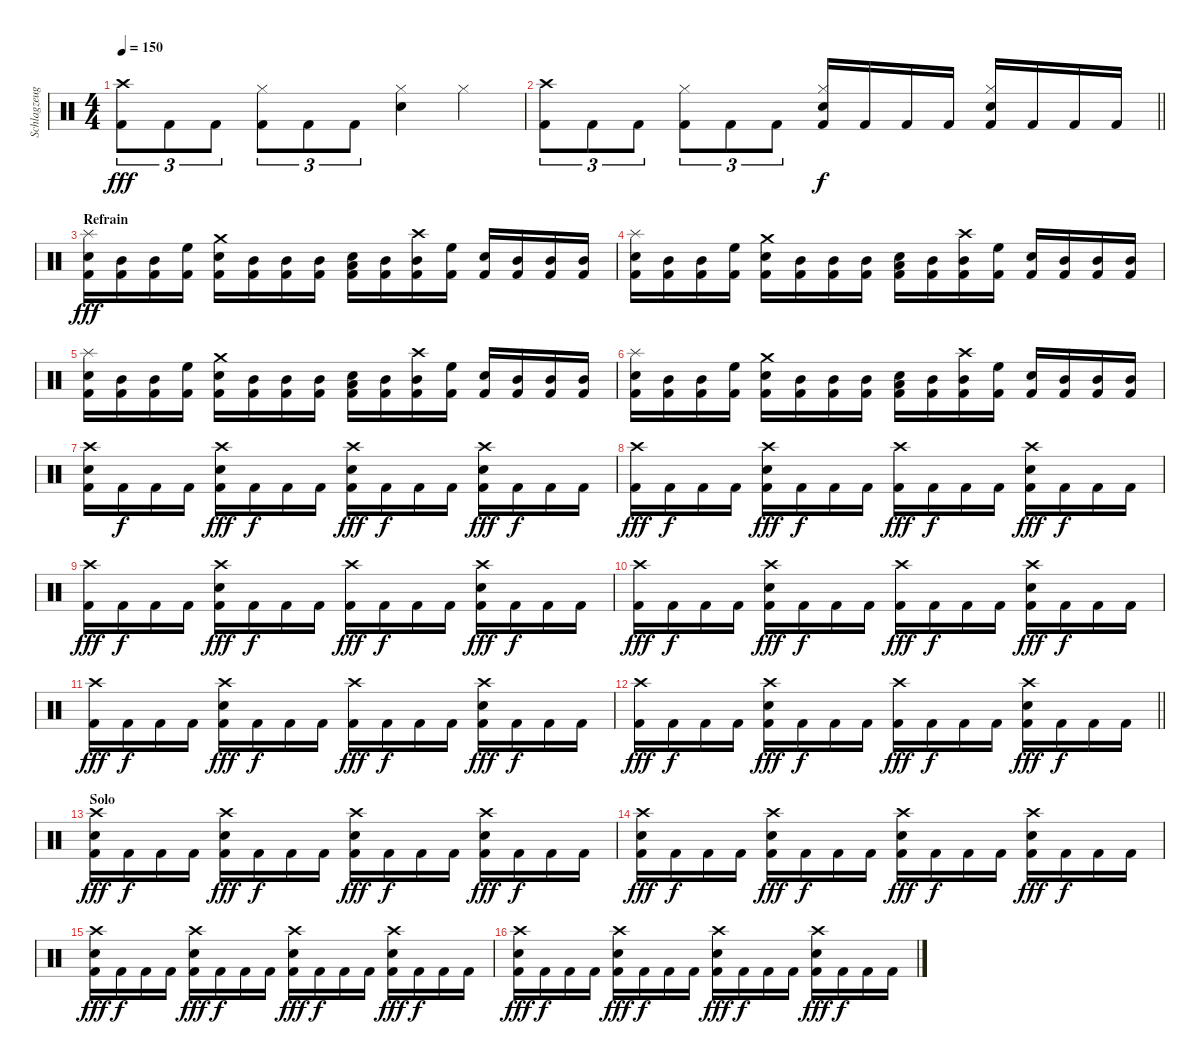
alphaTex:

\track ("Schlagzeug" "Schlagzeug") {instrument percussion}
\staff {score}
\articulation defaults
\ts (4 4)
\tempo 150
\clef neutral
\ks c
("Crash high (hit)" "Kick (hit) 2").8{tu (3 2) dy fff} "Kick (hit) 2".8{tu (3 2)} "Kick (hit) 2".8{tu (3 2)} ("Hi-Hat (closed)" "Kick (hit) 2").8{tu (3 2)} "Kick (hit) 2".8{tu (3 2)} "Kick (hit) 2".8{tu (3 2)} ("Hi-Hat (closed)" "Snare (hit) 2").4 "Hi-Hat (closed)".4 |
\barLineRight lightlight
("Crash high (hit)" "Kick (hit) 2").8{tu (3 2)} "Kick (hit) 2".8{tu (3 2)} "Kick (hit) 2".8{tu (3 2)} ("Hi-Hat (closed)" "Kick (hit) 2").8{tu (3 2)} "Kick (hit) 2".8{tu (3 2)} "Kick (hit) 2".8{tu (3 2)} ("Hi-Hat (closed)" "Kick (hit) 2" "Snare (hit) 2").16{dy f} "Kick (hit) 2".16 "Kick (hit) 2".16 "Kick (hit) 2".16 ("Hi-Hat (closed)" "Kick (hit) 2" "Snare (hit) 2").16 "Kick (hit) 2".16 "Kick (hit) 2".16 "Kick (hit) 2".16 |
\section ("" "Refrain")
("Snare (hit) 2" "Splash (hit)" "Kick (hit) 2").16{dy fff} ("Mid Tom (hit)" "Kick (hit) 2").16 ("Mid Tom (hit)" "Kick (hit) 2").16 ("High Floor Tom (hit)" "Kick (hit) 2").16 ("Snare (hit) 2" "Crash medium (hit)" "Kick (hit) 2").16 ("Mid Tom (hit)" "Kick (hit) 2").16 ("Mid Tom (hit)" "Kick (hit) 2").16 ("Mid Tom (hit)" "Kick (hit) 2").16 ("Snare (hit) 2" "Low Tom (hit)" "Kick (hit) 2").16 ("Mid Tom (hit)" "Kick (hit) 2").16 ("Mid Tom (hit)" "Crash high (hit)" "Kick (hit) 2").16 ("High Floor Tom (hit)" "Kick (hit) 2").16 ("Snare (hit) 2" "Kick (hit) 2").16 ("Mid Tom (hit)" "Kick (hit) 2").16 ("Mid Tom (hit)" "Kick (hit) 2").16 ("Mid Tom (hit)" "Kick (hit) 2").16 |
("Snare (hit) 2" "Splash (hit)" "Kick (hit) 2").16 ("Mid Tom (hit)" "Kick (hit) 2").16 ("Mid Tom (hit)" "Kick (hit) 2").16 ("High Floor Tom (hit)" "Kick (hit) 2").16 ("Snare (hit) 2" "Crash medium (hit)" "Kick (hit) 2").16 ("Mid Tom (hit)" "Kick (hit) 2").16 ("Mid Tom (hit)" "Kick (hit) 2").16 ("Mid Tom (hit)" "Kick (hit) 2").16 ("Snare (hit) 2" "Low Tom (hit)" "Kick (hit) 2").16 ("Mid Tom (hit)" "Kick (hit) 2").16 ("Mid Tom (hit)" "Crash high (hit)" "Kick (hit) 2").16 ("High Floor Tom (hit)" "Kick (hit) 2").16 ("Snare (hit) 2" "Kick (hit) 2").16 ("Mid Tom (hit)" "Kick (hit) 2").16 ("Mid Tom (hit)" "Kick (hit) 2").16 ("Mid Tom (hit)" "Kick (hit) 2").16 |
("Snare (hit) 2" "Splash (hit)" "Kick (hit) 2").16 ("Mid Tom (hit)" "Kick (hit) 2").16 ("Mid Tom (hit)" "Kick (hit) 2").16 ("High Floor Tom (hit)" "Kick (hit) 2").16 ("Snare (hit) 2" "Crash medium (hit)" "Kick (hit) 2").16 ("Mid Tom (hit)" "Kick (hit) 2").16 ("Mid Tom (hit)" "Kick (hit) 2").16 ("Mid Tom (hit)" "Kick (hit) 2").16 ("Snare (hit) 2" "Low Tom (hit)" "Kick (hit) 2").16 ("Mid Tom (hit)" "Kick (hit) 2").16 ("Mid Tom (hit)" "Crash high (hit)" "Kick (hit) 2").16 ("High Floor Tom (hit)" "Kick (hit) 2").16 ("Snare (hit) 2" "Kick (hit) 2").16 ("Mid Tom (hit)" "Kick (hit) 2").16 ("Mid Tom (hit)" "Kick (hit) 2").16 ("Mid Tom (hit)" "Kick (hit) 2").16 |
("Snare (hit) 2" "Splash (hit)" "Kick (hit) 2").16 ("Mid Tom (hit)" "Kick (hit) 2").16 ("Mid Tom (hit)" "Kick (hit) 2").16 ("High Floor Tom (hit)" "Kick (hit) 2").16 ("Snare (hit) 2" "Crash medium (hit)" "Kick (hit) 2").16 ("Mid Tom (hit)" "Kick (hit) 2").16 ("Mid Tom (hit)" "Kick (hit) 2").16 ("Mid Tom (hit)" "Kick (hit) 2").16 ("Snare (hit) 2" "Low Tom (hit)" "Kick (hit) 2").16 ("Mid Tom (hit)" "Kick (hit) 2").16 ("Mid Tom (hit)" "Crash high (hit)" "Kick (hit) 2").16 ("High Floor Tom (hit)" "Kick (hit) 2").16 ("Snare (hit) 2" "Kick (hit) 2").16 ("Mid Tom (hit)" "Kick (hit) 2").16 ("Mid Tom (hit)" "Kick (hit) 2").16 ("Mid Tom (hit)" "Kick (hit) 2").16 |
("Crash high (hit)" "Snare (hit) 2" "Kick (hit) 2").16 "Kick (hit) 2".16{dy f} "Kick (hit) 2".16 "Kick (hit) 2".16 ("Crash high (hit)" "Snare (hit) 2" "Kick (hit) 2").16{dy fff} "Kick (hit) 2".16{dy f} "Kick (hit) 2".16 "Kick (hit) 2".16 ("Crash high (hit)" "Snare (hit) 2" "Kick (hit) 2").16{dy fff} "Kick (hit) 2".16{dy f} "Kick (hit) 2".16 "Kick (hit) 2".16 ("Crash high (hit)" "Snare (hit) 2" "Kick (hit) 2").16{dy fff} "Kick (hit) 2".16{dy f} "Kick (hit) 2".16 "Kick (hit) 2".16 |
("Crash high (hit)" "Kick (hit) 2").16{dy fff} "Kick (hit) 2".16{dy f} "Kick (hit) 2".16 "Kick (hit) 2".16 ("Crash high (hit)" "Snare (hit) 2" "Kick (hit) 2").16{dy fff} "Kick (hit) 2".16{dy f} "Kick (hit) 2".16 "Kick (hit) 2".16 ("Crash high (hit)" "Kick (hit) 2").16{dy fff} "Kick (hit) 2".16{dy f} "Kick (hit) 2".16 "Kick (hit) 2".16 ("Crash high (hit)" "Snare (hit) 2" "Kick (hit) 2").16{dy fff} "Kick (hit) 2".16{dy f} "Kick (hit) 2".16 "Kick (hit) 2".16 |
("Crash high (hit)" "Kick (hit) 2").16{dy fff} "Kick (hit) 2".16{dy f} "Kick (hit) 2".16 "Kick (hit) 2".16 ("Crash high (hit)" "Snare (hit) 2" "Kick (hit) 2").16{dy fff} "Kick (hit) 2".16{dy f} "Kick (hit) 2".16 "Kick (hit) 2".16 ("Crash high (hit)" "Kick (hit) 2").16{dy fff} "Kick (hit) 2".16{dy f} "Kick (hit) 2".16 "Kick (hit) 2".16 ("Crash high (hit)" "Snare (hit) 2" "Kick (hit) 2").16{dy fff} "Kick (hit) 2".16{dy f} "Kick (hit) 2".16 "Kick (hit) 2".16 |
("Crash high (hit)" "Kick (hit) 2").16{dy fff} "Kick (hit) 2".16{dy f} "Kick (hit) 2".16 "Kick (hit) 2".16 ("Crash high (hit)" "Snare (hit) 2" "Kick (hit) 2").16{dy fff} "Kick (hit) 2".16{dy f} "Kick (hit) 2".16 "Kick (hit) 2".16 ("Crash high (hit)" "Kick (hit) 2").16{dy fff} "Kick (hit) 2".16{dy f} "Kick (hit) 2".16 "Kick (hit) 2".16 ("Crash high (hit)" "Snare (hit) 2" "Kick (hit) 2").16{dy fff} "Kick (hit) 2".16{dy f} "Kick (hit) 2".16 "Kick (hit) 2".16 |
("Crash high (hit)" "Kick (hit) 2").16{dy fff} "Kick (hit) 2".16{dy f} "Kick (hit) 2".16 "Kick (hit) 2".16 ("Crash high (hit)" "Snare (hit) 2" "Kick (hit) 2").16{dy fff} "Kick (hit) 2".16{dy f} "Kick (hit) 2".16 "Kick (hit) 2".16 ("Crash high (hit)" "Kick (hit) 2").16{dy fff} "Kick (hit) 2".16{dy f} "Kick (hit) 2".16 "Kick (hit) 2".16 ("Crash high (hit)" "Snare (hit) 2" "Kick (hit) 2").16{dy fff} "Kick (hit) 2".16{dy f} "Kick (hit) 2".16 "Kick (hit) 2".16 |
\barLineRight lightlight
("Crash high (hit)" "Kick (hit) 2").16{dy fff} "Kick (hit) 2".16{dy f} "Kick (hit) 2".16 "Kick (hit) 2".16 ("Crash high (hit)" "Snare (hit) 2" "Kick (hit) 2").16{dy fff} "Kick (hit) 2".16{dy f} "Kick (hit) 2".16 "Kick (hit) 2".16 ("Crash high (hit)" "Kick (hit) 2").16{dy fff} "Kick (hit) 2".16{dy f} "Kick (hit) 2".16 "Kick (hit) 2".16 ("Crash high (hit)" "Snare (hit) 2" "Kick (hit) 2").16{dy fff} "Kick (hit) 2".16{dy f} "Kick (hit) 2".16 "Kick (hit) 2".16 |
\section ("" "Solo")
("Crash high (hit)" "Snare (hit) 2" "Kick (hit) 2").16{dy fff} "Kick (hit) 2".16{dy f} "Kick (hit) 2".16 "Kick (hit) 2".16 ("Crash high (hit)" "Snare (hit) 2" "Kick (hit) 2").16{dy fff} "Kick (hit) 2".16{dy f} "Kick (hit) 2".16 "Kick (hit) 2".16 ("Crash high (hit)" "Snare (hit) 2" "Kick (hit) 2").16{dy fff} "Kick (hit) 2".16{dy f} "Kick (hit) 2".16 "Kick (hit) 2".16 ("Crash high (hit)" "Snare (hit) 2" "Kick (hit) 2").16{dy fff} "Kick (hit) 2".16{dy f} "Kick (hit) 2".16 "Kick (hit) 2".16 |
("Crash high (hit)" "Snare (hit) 2" "Kick (hit) 2").16{dy fff} "Kick (hit) 2".16{dy f} "Kick (hit) 2".16 "Kick (hit) 2".16 ("Crash high (hit)" "Snare (hit) 2" "Kick (hit) 2").16{dy fff} "Kick (hit) 2".16{dy f} "Kick (hit) 2".16 "Kick (hit) 2".16 ("Crash high (hit)" "Snare (hit) 2" "Kick (hit) 2").16{dy fff} "Kick (hit) 2".16{dy f} "Kick (hit) 2".16 "Kick (hit) 2".16 ("Crash high (hit)" "Snare (hit) 2" "Kick (hit) 2").16{dy fff} "Kick (hit) 2".16{dy f} "Kick (hit) 2".16 "Kick (hit) 2".16 |
("Crash high (hit)" "Snare (hit) 2" "Kick (hit) 2").16{dy fff} "Kick (hit) 2".16{dy f} "Kick (hit) 2".16 "Kick (hit) 2".16 ("Crash high (hit)" "Snare (hit) 2" "Kick (hit) 2").16{dy fff} "Kick (hit) 2".16{dy f} "Kick (hit) 2".16 "Kick (hit) 2".16 ("Crash high (hit)" "Snare (hit) 2" "Kick (hit) 2").16{dy fff} "Kick (hit) 2".16{dy f} "Kick (hit) 2".16 "Kick (hit) 2".16 ("Crash high (hit)" "Snare (hit) 2" "Kick (hit) 2").16{dy fff} "Kick (hit) 2".16{dy f} "Kick (hit) 2".16 "Kick (hit) 2".16 |
("Crash high (hit)" "Snare (hit) 2" "Kick (hit) 2").16{dy fff} "Kick (hit) 2".16{dy f} "Kick (hit) 2".16 "Kick (hit) 2".16 ("Crash high (hit)" "Snare (hit) 2" "Kick (hit) 2").16{dy fff} "Kick (hit) 2".16{dy f} "Kick (hit) 2".16 "Kick (hit) 2".16 ("Crash high (hit)" "Snare (hit) 2" "Kick (hit) 2").16{dy fff} "Kick (hit) 2".16{dy f} "Kick (hit) 2".16 "Kick (hit) 2".16 ("Crash high (hit)" "Snare (hit) 2" "Kick (hit) 2").16{dy fff} "Kick (hit) 2".16{dy f} "Kick (hit) 2".16 "Kick (hit) 2".16
